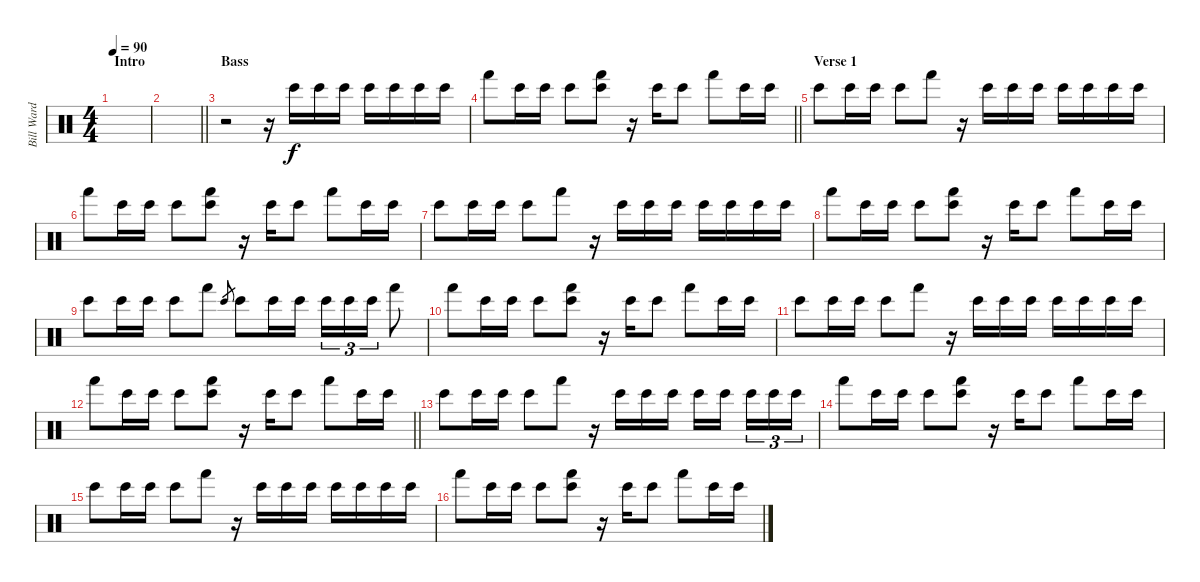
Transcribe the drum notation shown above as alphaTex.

\track ("Bill Ward" "Bill Ward") {instrument percussion}
\staff {score}
\articulation defaults
\ts (4 4)
\section ("" "Intro")
\tempo 90
\clef neutral
\ks c
|
\barLineRight lightlight
|
\section ("" "Bass")
r.2 r.16 "Bongo High (hit)".16{volume 0} "Bongo High (hit)".16{volume 3} "Bongo High (hit)".16{volume 6} "Bongo High (hit)".16{volume 9} "Bongo High (hit)".16{volume 12} "Bongo High (hit)".16{volume 11} "Bongo High (hit)".16 |
\barLineRight lightlight "Hand (hit)".8 "Bongo High (hit)".16 "Bongo High (hit)".16 "Bongo High (hit)".8
("Bongo High (hit)" "Hand (hit)").8 r.16 "Bongo High (hit)".16 "Bongo High (hit)".8 "Hand (hit)".8 "Bongo High (hit)".16 "Bongo High (hit)".16 |
\section ("" "Verse 1")
"Bongo High (hit)".8 "Bongo High (hit)".16 "Bongo High (hit)".16 "Bongo High (hit)".8 "Hand (hit)".8 r.16 "Bongo High (hit)".16 "Bongo High (hit)".16 "Bongo High (hit)".16 "Bongo High (hit)".16 "Bongo High (hit)".16 "Bongo High (hit)".16 "Bongo High (hit)".16 |
"Hand (hit)".8 "Bongo High (hit)".16 "Bongo High (hit)".16 "Bongo High (hit)".8 ("Bongo High (hit)" "Hand (hit)").8 r.16 "Bongo High (hit)".16 "Bongo High (hit)".8 "Hand (hit)".8 "Bongo High (hit)".16 "Bongo High (hit)".16 |
"Bongo High (hit)".8 "Bongo High (hit)".16 "Bongo High (hit)".16 "Bongo High (hit)".8 "Hand (hit)".8 r.16 "Bongo High (hit)".16 "Bongo High (hit)".16 "Bongo High (hit)".16 "Bongo High (hit)".16 "Bongo High (hit)".16 "Bongo High (hit)".16 "Bongo High (hit)".16 |
"Hand (hit)".8 "Bongo High (hit)".16 "Bongo High (hit)".16 "Bongo High (hit)".8 ("Bongo High (hit)" "Hand (hit)").8 r.16 "Bongo High (hit)".16 "Bongo High (hit)".8 "Hand (hit)".8 "Bongo High (hit)".16 "Bongo High (hit)".16 |
"Bongo High (hit)".8 "Bongo High (hit)".16 "Bongo High (hit)".16 "Bongo High (hit)".8 "Hand (hit)".8 "Bongo High (hit)".8{gr} "Bongo High (hit)".8 "Bongo High (hit)".16 "Bongo High (hit)".16 "Bongo High (hit)".16{tu (3 2)} "Bongo High (hit)".16{tu (3 2)} "Bongo High (hit)".16{tu (3 2)} "Hand (hit)".8 |
"Hand (hit)".8 "Bongo High (hit)".16 "Bongo High (hit)".16 "Bongo High (hit)".8 ("Bongo High (hit)" "Hand (hit)").8 r.16 "Bongo High (hit)".16 "Bongo High (hit)".8 "Hand (hit)".8 "Bongo High (hit)".16 "Bongo High (hit)".16 |
"Bongo High (hit)".8 "Bongo High (hit)".16 "Bongo High (hit)".16 "Bongo High (hit)".8 "Hand (hit)".8 r.16 "Bongo High (hit)".16 "Bongo High (hit)".16 "Bongo High (hit)".16 "Bongo High (hit)".16 "Bongo High (hit)".16 "Bongo High (hit)".16 "Bongo High (hit)".16 |
\barLineRight lightlight "Hand (hit)".8 "Bongo High (hit)".16 "Bongo High (hit)".16 "Bongo High (hit)".8
("Bongo High (hit)" "Hand (hit)").8 r.16 "Bongo High (hit)".16 "Bongo High (hit)".8 "Hand (hit)".8 "Bongo High (hit)".16 "Bongo High (hit)".16 |
"Bongo High (hit)".8 "Bongo High (hit)".16 "Bongo High (hit)".16 "Bongo High (hit)".8 "Hand (hit)".8 r.16 "Bongo High (hit)".16 "Bongo High (hit)".16 "Bongo High (hit)".16 "Bongo High (hit)".16 "Bongo High (hit)".16{beam splitsecondary} "Bongo High (hit)".16{tu (3 2)} "Bongo High (hit)".16{tu (3 2)} "Bongo High (hit)".16{tu (3 2)} |
"Hand (hit)".8 "Bongo High (hit)".16 "Bongo High (hit)".16 "Bongo High (hit)".8 ("Bongo High (hit)" "Hand (hit)").8 r.16 "Bongo High (hit)".16 "Bongo High (hit)".8 "Hand (hit)".8 "Bongo High (hit)".16 "Bongo High (hit)".16 |
"Bongo High (hit)".8 "Bongo High (hit)".16 "Bongo High (hit)".16 "Bongo High (hit)".8 "Hand (hit)".8 r.16 "Bongo High (hit)".16 "Bongo High (hit)".16 "Bongo High (hit)".16 "Bongo High (hit)".16 "Bongo High (hit)".16 "Bongo High (hit)".16 "Bongo High (hit)".16 |
"Hand (hit)".8 "Bongo High (hit)".16 "Bongo High (hit)".16 "Bongo High (hit)".8 ("Bongo High (hit)" "Hand (hit)").8 r.16 "Bongo High (hit)".16 "Bongo High (hit)".8 "Hand (hit)".8 "Bongo High (hit)".16 "Bongo High (hit)".16
